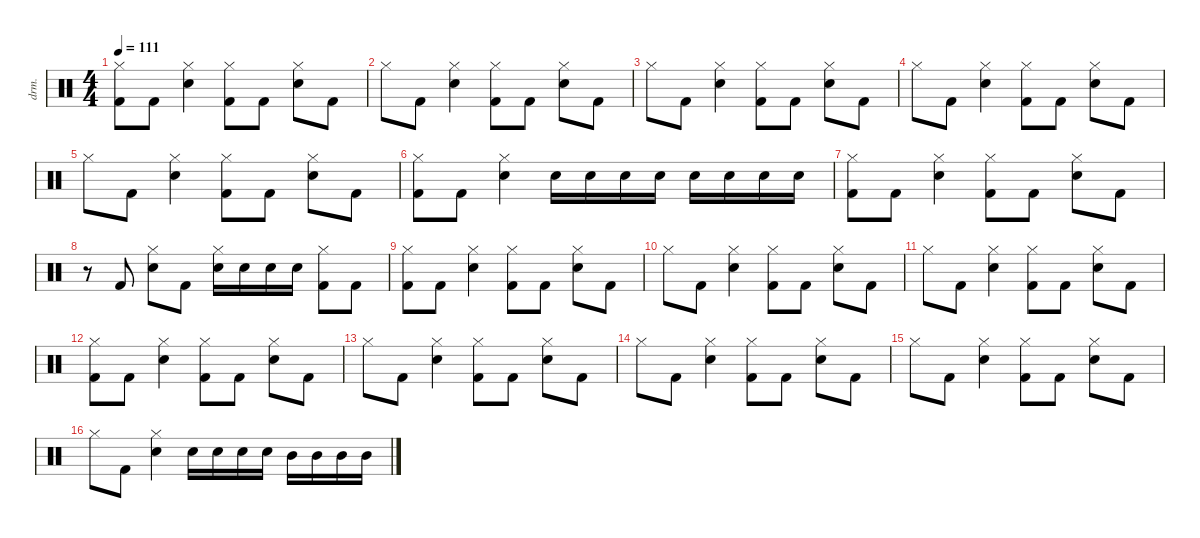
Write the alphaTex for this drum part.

\defaultSystemsLayout 4
\hideDynamics
\bracketExtendMode nobrackets
\otherSystemsTrackNameOrientation horizontal
\track ("Drums" "drm.") {instrument percussion}
\staff {score}
\articulation defaults
\ts (4 4)
\tempo 111
\clef neutral
\ks c
("Kick (hit) 2" "Hi-Hat (closed)").8{dy f} "Kick (hit) 2".8 ("Snare (hit) 2" "Hi-Hat (closed)").4 ("Kick (hit) 2" "Hi-Hat (closed)").8 "Kick (hit) 2".8 ("Snare (hit) 2" "Hi-Hat (closed)").8 "Kick (hit) 2".8 |
"Hi-Hat (closed)".8 "Kick (hit) 2".8 ("Snare (hit) 2" "Hi-Hat (closed)").4 ("Kick (hit) 2" "Hi-Hat (closed)").8 "Kick (hit) 2".8 ("Snare (hit) 2" "Hi-Hat (closed)").8 "Kick (hit) 2".8 |
"Hi-Hat (closed)".8 "Kick (hit) 2".8 ("Snare (hit) 2" "Hi-Hat (closed)").4 ("Kick (hit) 2" "Hi-Hat (closed)").8 "Kick (hit) 2".8 ("Snare (hit) 2" "Hi-Hat (closed)").8 "Kick (hit) 2".8 |
"Hi-Hat (closed)".8 "Kick (hit) 2".8 ("Snare (hit) 2" "Hi-Hat (closed)").4 ("Kick (hit) 2" "Hi-Hat (closed)").8 "Kick (hit) 2".8 ("Snare (hit) 2" "Hi-Hat (closed)").8 "Kick (hit) 2".8 |
"Hi-Hat (closed)".8 "Kick (hit) 2".8 ("Snare (hit) 2" "Hi-Hat (closed)").4 ("Kick (hit) 2" "Hi-Hat (closed)").8 "Kick (hit) 2".8 ("Snare (hit) 2" "Hi-Hat (closed)").8 "Kick (hit) 2".8 |
("Kick (hit) 2" "Hi-Hat (closed)").8 "Kick (hit) 2".8 ("Snare (hit) 2" "Hi-Hat (closed)").4 "Snare (hit) 2".16 "Snare (hit) 2".16 "Snare (hit) 2".16 "Snare (hit) 2".16 "Snare (hit) 2".16 "Snare (hit) 2".16 "Snare (hit) 2".16 "Snare (hit) 2".16 |
("Kick (hit) 2" "Hi-Hat (closed)").8 "Kick (hit) 2".8 ("Snare (hit) 2" "Hi-Hat (closed)").4 ("Kick (hit) 2" "Hi-Hat (closed)").8 "Kick (hit) 2".8 ("Snare (hit) 2" "Hi-Hat (closed)").8 "Kick (hit) 2".8 |
r.8 "Kick (hit) 2".8 ("Snare (hit) 2" "Hi-Hat (closed)").8 "Kick (hit) 2".8 ("Snare (hit) 2" "Hi-Hat (closed)").16 "Snare (hit) 2".16 "Snare (hit) 2".16 "Snare (hit) 2".16 ("Kick (hit) 2" "Hi-Hat (closed)").8 "Kick (hit) 2".8 |
("Kick (hit) 2" "Hi-Hat (closed)").8 "Kick (hit) 2".8 ("Snare (hit) 2" "Hi-Hat (closed)").4 ("Kick (hit) 2" "Hi-Hat (closed)").8 "Kick (hit) 2".8 ("Snare (hit) 2" "Hi-Hat (closed)").8 "Kick (hit) 2".8 |
"Hi-Hat (closed)".8 "Kick (hit) 2".8 ("Snare (hit) 2" "Hi-Hat (closed)").4 ("Kick (hit) 2" "Hi-Hat (closed)").8 "Kick (hit) 2".8 ("Snare (hit) 2" "Hi-Hat (closed)").8 "Kick (hit) 2".8 |
"Hi-Hat (closed)".8 "Kick (hit) 2".8 ("Snare (hit) 2" "Hi-Hat (closed)").4 ("Kick (hit) 2" "Hi-Hat (closed)").8 "Kick (hit) 2".8 ("Snare (hit) 2" "Hi-Hat (closed)").8 "Kick (hit) 2".8 |
("Kick (hit) 2" "Hi-Hat (closed)").8 "Kick (hit) 2".8 ("Snare (hit) 2" "Hi-Hat (closed)").4 ("Kick (hit) 2" "Hi-Hat (closed)").8 "Kick (hit) 2".8 ("Snare (hit) 2" "Hi-Hat (closed)").8 "Kick (hit) 2".8 |
"Hi-Hat (closed)".8 "Kick (hit) 2".8 ("Snare (hit) 2" "Hi-Hat (closed)").4 ("Kick (hit) 2" "Hi-Hat (closed)").8 "Kick (hit) 2".8 ("Snare (hit) 2" "Hi-Hat (closed)").8 "Kick (hit) 2".8 |
"Hi-Hat (closed)".8 "Kick (hit) 2".8 ("Snare (hit) 2" "Hi-Hat (closed)").4 ("Kick (hit) 2" "Hi-Hat (closed)").8 "Kick (hit) 2".8 ("Snare (hit) 2" "Hi-Hat (closed)").8 "Kick (hit) 2".8 |
"Hi-Hat (closed)".8 "Kick (hit) 2".8 ("Snare (hit) 2" "Hi-Hat (closed)").4 ("Kick (hit) 2" "Hi-Hat (closed)").8 "Kick (hit) 2".8 ("Snare (hit) 2" "Hi-Hat (closed)").8 "Kick (hit) 2".8 |
"Hi-Hat (closed)".8 "Kick (hit) 2".8 ("Snare (hit) 2" "Hi-Hat (closed)").4 "Snare (hit) 2".16 "Snare (hit) 2".16 "Snare (hit) 2".16 "Snare (hit) 2".16 "Mid Tom (hit)".16 "Mid Tom (hit)".16 "Mid Tom (hit)".16 "Mid Tom (hit)".16
